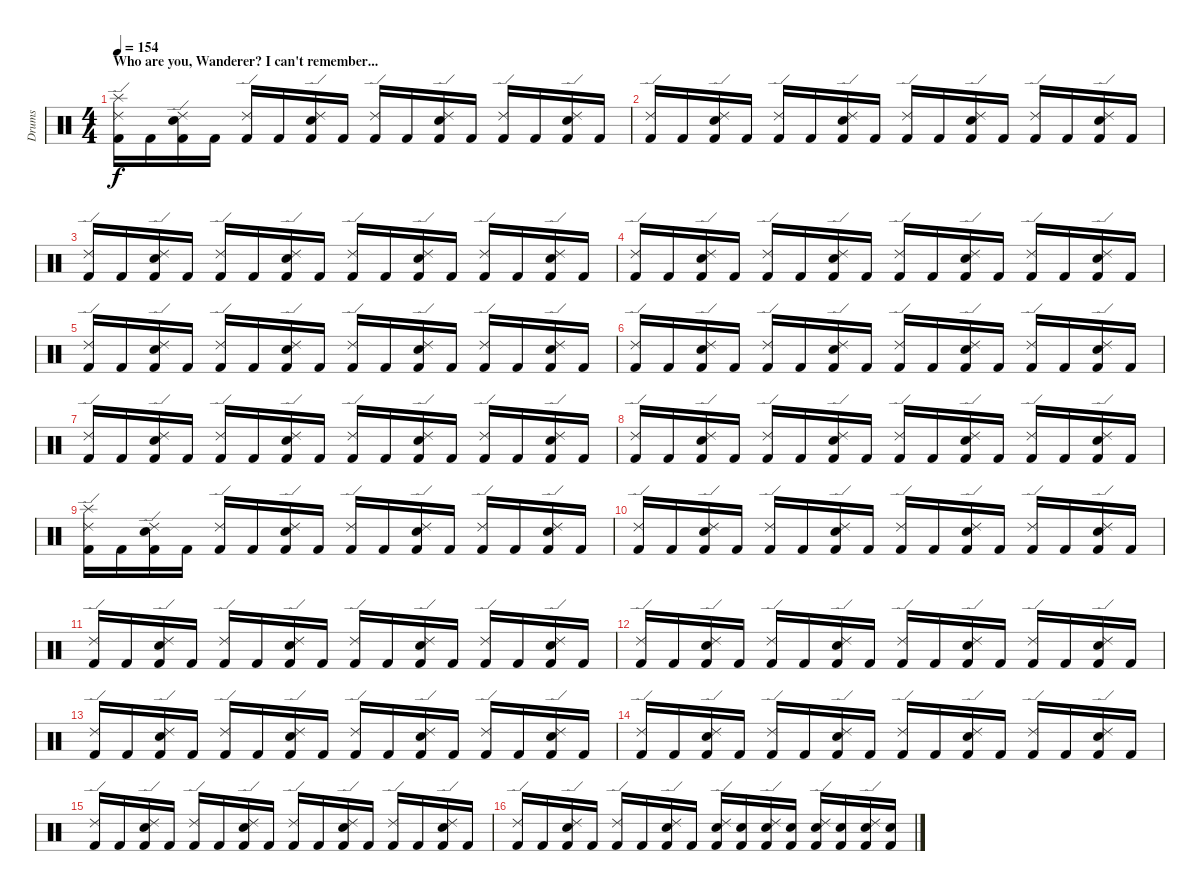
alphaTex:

\track ("Drums" "Drums") {instrument percussion}
\staff {score}
\articulation defaults
\ts (4 4)
\section ("" "Who are you, Wanderer? I can't remember...")
\tempo 154
\clef neutral
\ks c
("Splash (hit)" "Ride (edge) 2" "Kick (hit) 2").16{dy f} "Kick (hit) 2".16 ("Ride (edge) 2" "Snare (hit) 2" "Kick (hit) 2").16 "Kick (hit) 2".16 ("Ride (edge) 2" "Kick (hit) 2").16 "Kick (hit) 2".16 ("Ride (edge) 2" "Snare (hit) 2" "Kick (hit) 2").16 "Kick (hit) 2".16 ("Ride (edge) 2" "Kick (hit) 2").16 "Kick (hit) 2".16 ("Ride (edge) 2" "Snare (hit) 2" "Kick (hit) 2").16 "Kick (hit) 2".16 ("Ride (edge) 2" "Kick (hit) 2").16 "Kick (hit) 2".16 ("Ride (edge) 2" "Snare (hit) 2" "Kick (hit) 2").16 "Kick (hit) 2".16 |
("Ride (edge) 2" "Kick (hit) 2").16 "Kick (hit) 2".16 ("Ride (edge) 2" "Snare (hit) 2" "Kick (hit) 2").16 "Kick (hit) 2".16 ("Ride (edge) 2" "Kick (hit) 2").16 "Kick (hit) 2".16 ("Ride (edge) 2" "Snare (hit) 2" "Kick (hit) 2").16 "Kick (hit) 2".16 ("Ride (edge) 2" "Kick (hit) 2").16 "Kick (hit) 2".16 ("Ride (edge) 2" "Snare (hit) 2" "Kick (hit) 2").16 "Kick (hit) 2".16 ("Ride (edge) 2" "Kick (hit) 2").16 "Kick (hit) 2".16 ("Ride (edge) 2" "Snare (hit) 2" "Kick (hit) 2").16 "Kick (hit) 2".16 |
("Ride (edge) 2" "Kick (hit) 2").16 "Kick (hit) 2".16 ("Ride (edge) 2" "Snare (hit) 2" "Kick (hit) 2").16 "Kick (hit) 2".16 ("Ride (edge) 2" "Kick (hit) 2").16 "Kick (hit) 2".16 ("Ride (edge) 2" "Snare (hit) 2" "Kick (hit) 2").16 "Kick (hit) 2".16 ("Ride (edge) 2" "Kick (hit) 2").16 "Kick (hit) 2".16 ("Ride (edge) 2" "Snare (hit) 2" "Kick (hit) 2").16 "Kick (hit) 2".16 ("Ride (edge) 2" "Kick (hit) 2").16 "Kick (hit) 2".16 ("Ride (edge) 2" "Snare (hit) 2" "Kick (hit) 2").16 "Kick (hit) 2".16 |
("Ride (edge) 2" "Kick (hit) 2").16 "Kick (hit) 2".16 ("Ride (edge) 2" "Snare (hit) 2" "Kick (hit) 2").16 "Kick (hit) 2".16 ("Ride (edge) 2" "Kick (hit) 2").16 "Kick (hit) 2".16 ("Ride (edge) 2" "Snare (hit) 2" "Kick (hit) 2").16 "Kick (hit) 2".16 ("Ride (edge) 2" "Kick (hit) 2").16 "Kick (hit) 2".16 ("Ride (edge) 2" "Snare (hit) 2" "Kick (hit) 2").16 "Kick (hit) 2".16 ("Ride (edge) 2" "Kick (hit) 2").16 "Kick (hit) 2".16 ("Ride (edge) 2" "Snare (hit) 2" "Kick (hit) 2").16 "Kick (hit) 2".16 |
("Ride (edge) 2" "Kick (hit) 2").16 "Kick (hit) 2".16 ("Ride (edge) 2" "Snare (hit) 2" "Kick (hit) 2").16 "Kick (hit) 2".16 ("Ride (edge) 2" "Kick (hit) 2").16 "Kick (hit) 2".16 ("Ride (edge) 2" "Snare (hit) 2" "Kick (hit) 2").16 "Kick (hit) 2".16 ("Ride (edge) 2" "Kick (hit) 2").16 "Kick (hit) 2".16 ("Ride (edge) 2" "Snare (hit) 2" "Kick (hit) 2").16 "Kick (hit) 2".16 ("Ride (edge) 2" "Kick (hit) 2").16 "Kick (hit) 2".16 ("Ride (edge) 2" "Snare (hit) 2" "Kick (hit) 2").16 "Kick (hit) 2".16 |
("Ride (edge) 2" "Kick (hit) 2").16 "Kick (hit) 2".16 ("Ride (edge) 2" "Snare (hit) 2" "Kick (hit) 2").16 "Kick (hit) 2".16 ("Ride (edge) 2" "Kick (hit) 2").16 "Kick (hit) 2".16 ("Ride (edge) 2" "Snare (hit) 2" "Kick (hit) 2").16 "Kick (hit) 2".16 ("Ride (edge) 2" "Kick (hit) 2").16 "Kick (hit) 2".16 ("Ride (edge) 2" "Snare (hit) 2" "Kick (hit) 2").16 "Kick (hit) 2".16 ("Ride (edge) 2" "Kick (hit) 2").16 "Kick (hit) 2".16 ("Ride (edge) 2" "Snare (hit) 2" "Kick (hit) 2").16 "Kick (hit) 2".16 |
("Ride (edge) 2" "Kick (hit) 2").16 "Kick (hit) 2".16 ("Ride (edge) 2" "Snare (hit) 2" "Kick (hit) 2").16 "Kick (hit) 2".16 ("Ride (edge) 2" "Kick (hit) 2").16 "Kick (hit) 2".16 ("Ride (edge) 2" "Snare (hit) 2" "Kick (hit) 2").16 "Kick (hit) 2".16 ("Ride (edge) 2" "Kick (hit) 2").16 "Kick (hit) 2".16 ("Ride (edge) 2" "Snare (hit) 2" "Kick (hit) 2").16 "Kick (hit) 2".16 ("Ride (edge) 2" "Kick (hit) 2").16 "Kick (hit) 2".16 ("Ride (edge) 2" "Snare (hit) 2" "Kick (hit) 2").16 "Kick (hit) 2".16 |
("Ride (edge) 2" "Kick (hit) 2").16 "Kick (hit) 2".16 ("Ride (edge) 2" "Snare (hit) 2" "Kick (hit) 2").16 "Kick (hit) 2".16 ("Ride (edge) 2" "Kick (hit) 2").16 "Kick (hit) 2".16 ("Ride (edge) 2" "Snare (hit) 2" "Kick (hit) 2").16 "Kick (hit) 2".16 ("Ride (edge) 2" "Kick (hit) 2").16 "Kick (hit) 2".16 ("Ride (edge) 2" "Snare (hit) 2" "Kick (hit) 2").16 "Kick (hit) 2".16 ("Ride (edge) 2" "Kick (hit) 2").16 "Kick (hit) 2".16 ("Ride (edge) 2" "Snare (hit) 2" "Kick (hit) 2").16 "Kick (hit) 2".16 |
("Splash (hit)" "Ride (edge) 2" "Kick (hit) 2").16 "Kick (hit) 2".16 ("Ride (edge) 2" "Snare (hit) 2" "Kick (hit) 2").16 "Kick (hit) 2".16 ("Ride (edge) 2" "Kick (hit) 2").16 "Kick (hit) 2".16 ("Ride (edge) 2" "Snare (hit) 2" "Kick (hit) 2").16 "Kick (hit) 2".16 ("Ride (edge) 2" "Kick (hit) 2").16 "Kick (hit) 2".16 ("Ride (edge) 2" "Snare (hit) 2" "Kick (hit) 2").16 "Kick (hit) 2".16 ("Ride (edge) 2" "Kick (hit) 2").16 "Kick (hit) 2".16 ("Ride (edge) 2" "Snare (hit) 2" "Kick (hit) 2").16 "Kick (hit) 2".16 |
("Ride (edge) 2" "Kick (hit) 2").16 "Kick (hit) 2".16 ("Ride (edge) 2" "Snare (hit) 2" "Kick (hit) 2").16 "Kick (hit) 2".16 ("Ride (edge) 2" "Kick (hit) 2").16 "Kick (hit) 2".16 ("Ride (edge) 2" "Snare (hit) 2" "Kick (hit) 2").16 "Kick (hit) 2".16 ("Ride (edge) 2" "Kick (hit) 2").16 "Kick (hit) 2".16 ("Ride (edge) 2" "Snare (hit) 2" "Kick (hit) 2").16 "Kick (hit) 2".16 ("Ride (edge) 2" "Kick (hit) 2").16 "Kick (hit) 2".16 ("Ride (edge) 2" "Snare (hit) 2" "Kick (hit) 2").16 "Kick (hit) 2".16 |
("Ride (edge) 2" "Kick (hit) 2").16 "Kick (hit) 2".16 ("Ride (edge) 2" "Snare (hit) 2" "Kick (hit) 2").16 "Kick (hit) 2".16 ("Ride (edge) 2" "Kick (hit) 2").16 "Kick (hit) 2".16 ("Ride (edge) 2" "Snare (hit) 2" "Kick (hit) 2").16 "Kick (hit) 2".16 ("Ride (edge) 2" "Kick (hit) 2").16 "Kick (hit) 2".16 ("Ride (edge) 2" "Snare (hit) 2" "Kick (hit) 2").16 "Kick (hit) 2".16 ("Ride (edge) 2" "Kick (hit) 2").16 "Kick (hit) 2".16 ("Ride (edge) 2" "Snare (hit) 2" "Kick (hit) 2").16 "Kick (hit) 2".16 |
("Ride (edge) 2" "Kick (hit) 2").16 "Kick (hit) 2".16 ("Ride (edge) 2" "Snare (hit) 2" "Kick (hit) 2").16 "Kick (hit) 2".16 ("Ride (edge) 2" "Kick (hit) 2").16 "Kick (hit) 2".16 ("Ride (edge) 2" "Snare (hit) 2" "Kick (hit) 2").16 "Kick (hit) 2".16 ("Ride (edge) 2" "Kick (hit) 2").16 "Kick (hit) 2".16 ("Ride (edge) 2" "Snare (hit) 2" "Kick (hit) 2").16 "Kick (hit) 2".16 ("Ride (edge) 2" "Kick (hit) 2").16 "Kick (hit) 2".16 ("Ride (edge) 2" "Snare (hit) 2" "Kick (hit) 2").16 "Kick (hit) 2".16 |
("Ride (edge) 2" "Kick (hit) 2").16 "Kick (hit) 2".16 ("Ride (edge) 2" "Snare (hit) 2" "Kick (hit) 2").16 "Kick (hit) 2".16 ("Ride (edge) 2" "Kick (hit) 2").16 "Kick (hit) 2".16 ("Ride (edge) 2" "Snare (hit) 2" "Kick (hit) 2").16 "Kick (hit) 2".16 ("Ride (edge) 2" "Kick (hit) 2").16 "Kick (hit) 2".16 ("Ride (edge) 2" "Snare (hit) 2" "Kick (hit) 2").16 "Kick (hit) 2".16 ("Ride (edge) 2" "Kick (hit) 2").16 "Kick (hit) 2".16 ("Ride (edge) 2" "Snare (hit) 2" "Kick (hit) 2").16 "Kick (hit) 2".16 |
("Ride (edge) 2" "Kick (hit) 2").16 "Kick (hit) 2".16 ("Ride (edge) 2" "Snare (hit) 2" "Kick (hit) 2").16 "Kick (hit) 2".16 ("Ride (edge) 2" "Kick (hit) 2").16 "Kick (hit) 2".16 ("Ride (edge) 2" "Snare (hit) 2" "Kick (hit) 2").16 "Kick (hit) 2".16 ("Ride (edge) 2" "Kick (hit) 2").16 "Kick (hit) 2".16 ("Ride (edge) 2" "Snare (hit) 2" "Kick (hit) 2").16 "Kick (hit) 2".16 ("Ride (edge) 2" "Kick (hit) 2").16 "Kick (hit) 2".16 ("Ride (edge) 2" "Snare (hit) 2" "Kick (hit) 2").16 "Kick (hit) 2".16 |
("Ride (edge) 2" "Kick (hit) 2").16 "Kick (hit) 2".16 ("Ride (edge) 2" "Snare (hit) 2" "Kick (hit) 2").16 "Kick (hit) 2".16 ("Ride (edge) 2" "Kick (hit) 2").16 "Kick (hit) 2".16 ("Ride (edge) 2" "Snare (hit) 2" "Kick (hit) 2").16 "Kick (hit) 2".16 ("Ride (edge) 2" "Kick (hit) 2").16 "Kick (hit) 2".16 ("Ride (edge) 2" "Snare (hit) 2" "Kick (hit) 2").16 "Kick (hit) 2".16 ("Ride (edge) 2" "Kick (hit) 2").16 "Kick (hit) 2".16 ("Ride (edge) 2" "Snare (hit) 2" "Kick (hit) 2").16 "Kick (hit) 2".16 |
("Ride (edge) 2" "Kick (hit) 2").16 "Kick (hit) 2".16 ("Ride (edge) 2" "Snare (hit) 2" "Kick (hit) 2").16 "Kick (hit) 2".16 ("Ride (edge) 2" "Kick (hit) 2").16 "Kick (hit) 2".16 ("Ride (edge) 2" "Snare (hit) 2" "Kick (hit) 2").16 "Kick (hit) 2".16 ("Ride (edge) 2" "Snare (hit) 2" "Kick (hit) 2").16 ("Snare (hit) 2" "Kick (hit) 2").16 ("Ride (edge) 2" "Snare (hit) 2" "Kick (hit) 2").16 ("Snare (hit) 2" "Kick (hit) 2").16 ("Ride (edge) 2" "Snare (hit) 2" "Kick (hit) 2").16 ("Snare (hit) 2" "Kick (hit) 2").16 ("Ride (edge) 2" "Snare (hit) 2" "Kick (hit) 2").16 ("Snare (hit) 2" "Kick (hit) 2").16
